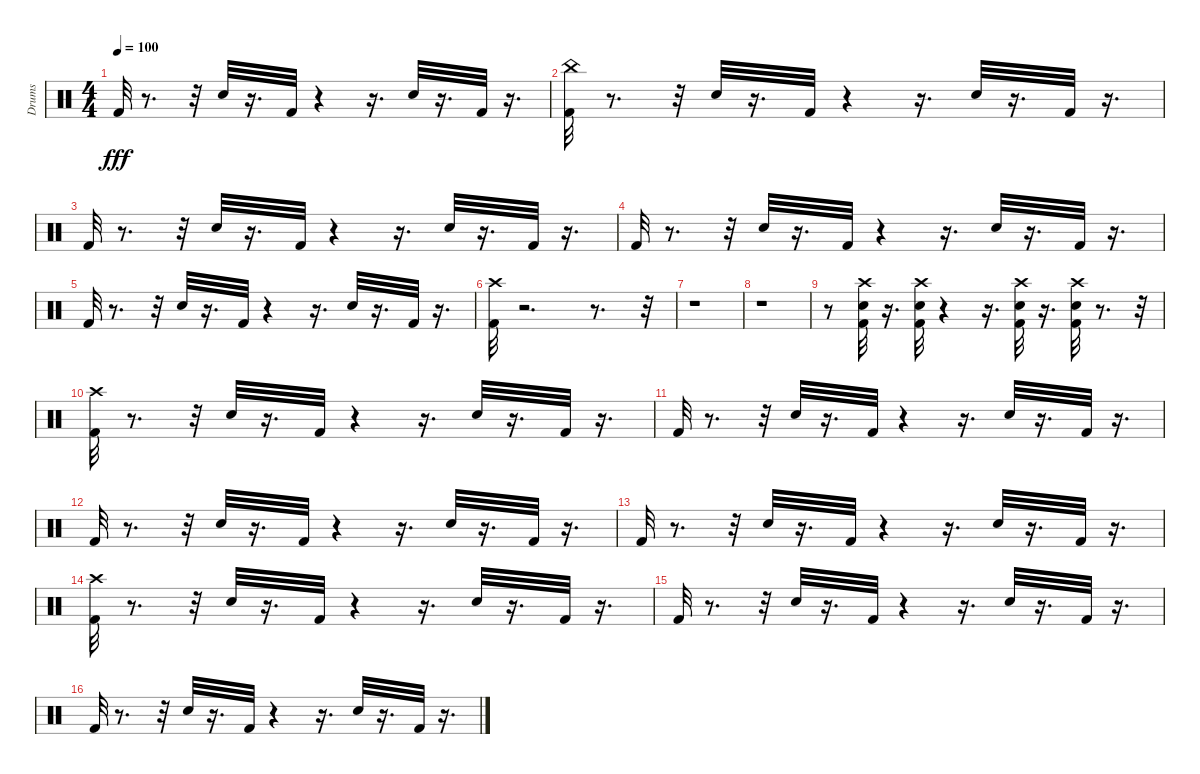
\track ("Drums" "Drums") {instrument percussion}
\staff {score}
\articulation defaults
\ts (4 4)
\tempo 100
\clef neutral
\ks c "Kick (hit) 2".32{dy fff}
r.8{d} r.32 "Electric Snare (hit)".32 r.16{d} "Kick (hit) 2".32 r.4 r.16{d} "Electric Snare (hit)".32 r.16{d} "Kick (hit) 2".32 r.16{d} |
("China (hit)" "Kick (hit) 2").32 r.8{d} r.32 "Electric Snare (hit)".32 r.16{d} "Kick (hit) 2".32 r.4 r.16{d} "Electric Snare (hit)".32 r.16{d} "Kick (hit) 2".32 r.16{d} |
"Kick (hit) 2".32 r.8{d} r.32 "Electric Snare (hit)".32 r.16{d} "Kick (hit) 2".32 r.4 r.16{d} "Electric Snare (hit)".32 r.16{d} "Kick (hit) 2".32 r.16{d} |
"Kick (hit) 2".32 r.8{d} r.32 "Electric Snare (hit)".32 r.16{d} "Kick (hit) 2".32 r.4 r.16{d} "Electric Snare (hit)".32 r.16{d} "Kick (hit) 2".32 r.16{d} |
"Kick (hit) 2".32 r.8{d} r.32 "Electric Snare (hit)".32 r.16{d} "Kick (hit) 2".32 r.4 r.16{d} "Electric Snare (hit)".32 r.16{d} "Kick (hit) 2".32 r.16{d} |
("Crash high (hit)" "Kick (hit) 2").32 r.2{d} r.8{d} r.32 |
r.1 |
r.1 |
r.8 ("Electric Snare (hit)" "Crash high (hit)" "Kick (hit) 2").32 r.16{d} ("Electric Snare (hit)" "Crash high (hit)" "Kick (hit) 2").32 r.4 r.16{d} ("Electric Snare (hit)" "Crash high (hit)" "Kick (hit) 2").32 r.16{d} ("Electric Snare (hit)" "Crash high (hit)" "Kick (hit) 2").32 r.8{d} r.32 |
("Crash high (hit)" "Kick (hit) 2").32 r.8{d} r.32 "Electric Snare (hit)".32 r.16{d} "Kick (hit) 2".32 r.4 r.16{d} "Electric Snare (hit)".32 r.16{d} "Kick (hit) 2".32 r.16{d} |
"Kick (hit) 2".32 r.8{d} r.32 "Electric Snare (hit)".32 r.16{d} "Kick (hit) 2".32 r.4 r.16{d} "Electric Snare (hit)".32 r.16{d} "Kick (hit) 2".32 r.16{d} |
"Kick (hit) 2".32 r.8{d} r.32 "Electric Snare (hit)".32 r.16{d} "Kick (hit) 2".32 r.4 r.16{d} "Electric Snare (hit)".32 r.16{d} "Kick (hit) 2".32 r.16{d} |
"Kick (hit) 2".32 r.8{d} r.32 "Electric Snare (hit)".32 r.16{d} "Kick (hit) 2".32 r.4 r.16{d} "Electric Snare (hit)".32 r.16{d} "Kick (hit) 2".32 r.16{d} |
("Crash high (hit)" "Kick (hit) 2").32 r.8{d} r.32 "Electric Snare (hit)".32 r.16{d} "Kick (hit) 2".32 r.4 r.16{d} "Electric Snare (hit)".32 r.16{d} "Kick (hit) 2".32 r.16{d} |
"Kick (hit) 2".32 r.8{d} r.32 "Electric Snare (hit)".32 r.16{d} "Kick (hit) 2".32 r.4 r.16{d} "Electric Snare (hit)".32 r.16{d} "Kick (hit) 2".32 r.16{d} |
"Kick (hit) 2".32 r.8{d} r.32 "Electric Snare (hit)".32 r.16{d} "Kick (hit) 2".32 r.4 r.16{d} "Electric Snare (hit)".32 r.16{d} "Kick (hit) 2".32 r.16{d}
